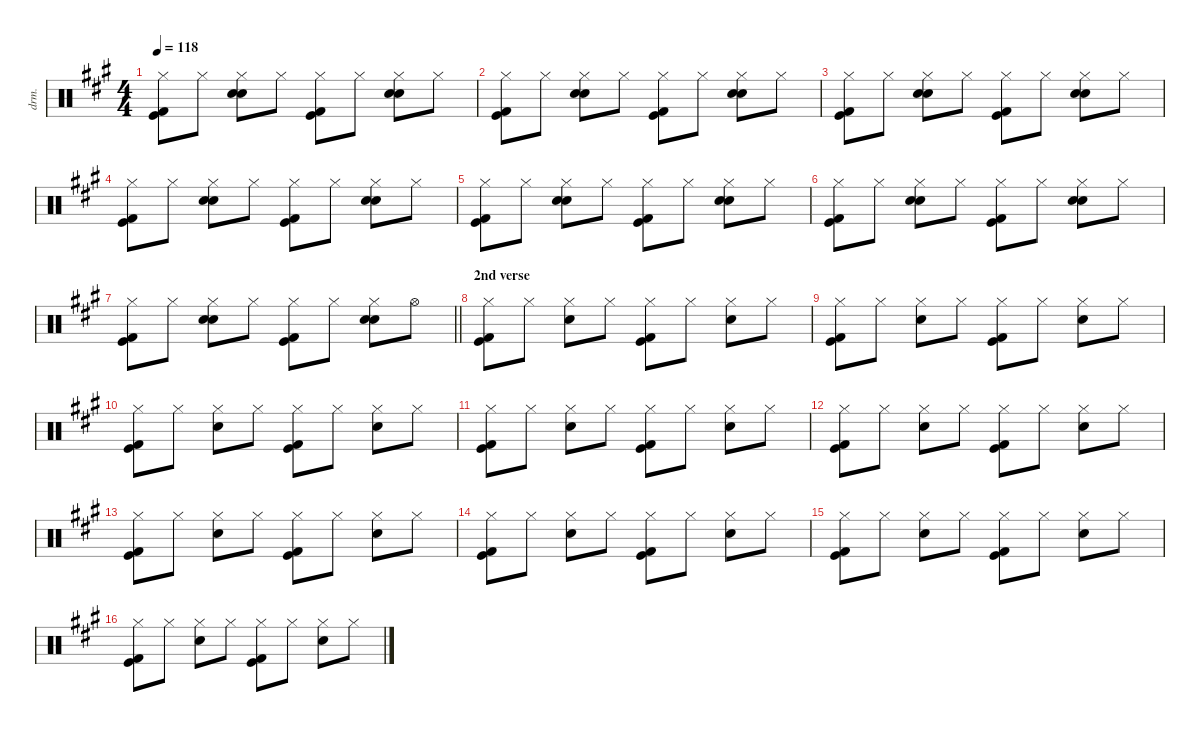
\defaultSystemsLayout 4
\hideDynamics
\bracketExtendMode nobrackets
\otherSystemsTrackNameOrientation horizontal
\track ("drums" "drm.") {instrument percussion}
\staff {score}
\articulation defaults
\ts (4 4)
\tempo 118
\clef neutral
\ks f#minor
("Hi-Hat (closed)"{acc forcenatural} "Kick (hit)"{acc forcenatural} "Kick (hit) 2"{acc forcenatural}).8{dy f} "Hi-Hat (closed)"{acc forcenatural}.8{dy mf} ("Hi-Hat (closed)"{acc forcenatural} "Hand Clap (hit)"{acc forcenatural} "Snare (hit) 2"{acc forcenatural}).8{dy f} "Hi-Hat (closed)"{acc forcenatural}.8{dy mf} ("Hi-Hat (closed)"{acc forcenatural} "Kick (hit)"{acc forcenatural} "Kick (hit) 2"{acc forcenatural}).8{dy f} "Hi-Hat (closed)"{acc forcenatural}.8{dy mf} ("Hi-Hat (closed)"{acc forcenatural} "Hand Clap (hit)"{acc forcenatural} "Snare (hit) 2"{acc forcenatural}).8{dy f} "Hi-Hat (closed)"{acc forcenatural}.8{dy mf} |
("Hi-Hat (closed)"{acc forcenatural} "Kick (hit)"{acc forcenatural} "Kick (hit) 2"{acc forcenatural}).8{dy f} "Hi-Hat (closed)"{acc forcenatural}.8{dy mf} ("Hi-Hat (closed)"{acc forcenatural} "Hand Clap (hit)"{acc forcenatural} "Snare (hit) 2"{acc forcenatural}).8{dy f} "Hi-Hat (closed)"{acc forcenatural}.8{dy mf} ("Hi-Hat (closed)"{acc forcenatural} "Kick (hit)"{acc forcenatural} "Kick (hit) 2"{acc forcenatural}).8{dy f} "Hi-Hat (closed)"{acc forcenatural}.8{dy mf} ("Hi-Hat (closed)"{acc forcenatural} "Hand Clap (hit)"{acc forcenatural} "Snare (hit) 2"{acc forcenatural}).8{dy f} "Hi-Hat (closed)"{acc forcenatural}.8{dy mf} |
("Hi-Hat (closed)"{acc forcenatural} "Kick (hit)"{acc forcenatural} "Kick (hit) 2"{acc forcenatural}).8{dy f} "Hi-Hat (closed)"{acc forcenatural}.8{dy mf} ("Hi-Hat (closed)"{acc forcenatural} "Hand Clap (hit)"{acc forcenatural} "Snare (hit) 2"{acc forcenatural}).8{dy f} "Hi-Hat (closed)"{acc forcenatural}.8{dy mf} ("Hi-Hat (closed)"{acc forcenatural} "Kick (hit)"{acc forcenatural} "Kick (hit) 2"{acc forcenatural}).8{dy f} "Hi-Hat (closed)"{acc forcenatural}.8{dy mf} ("Hi-Hat (closed)"{acc forcenatural} "Hand Clap (hit)"{acc forcenatural} "Snare (hit) 2"{acc forcenatural}).8{dy f} "Hi-Hat (closed)"{acc forcenatural}.8{dy mf} |
("Hi-Hat (closed)"{acc forcenatural} "Kick (hit)"{acc forcenatural} "Kick (hit) 2"{acc forcenatural}).8{dy f} "Hi-Hat (closed)"{acc forcenatural}.8{dy mf} ("Hi-Hat (closed)"{acc forcenatural} "Hand Clap (hit)"{acc forcenatural} "Snare (hit) 2"{acc forcenatural}).8{dy f} "Hi-Hat (closed)"{acc forcenatural}.8{dy mf} ("Hi-Hat (closed)"{acc forcenatural} "Kick (hit)"{acc forcenatural} "Kick (hit) 2"{acc forcenatural}).8{dy f} "Hi-Hat (closed)"{acc forcenatural}.8{dy mf} ("Hi-Hat (closed)"{acc forcenatural} "Hand Clap (hit)"{acc forcenatural} "Snare (hit) 2"{acc forcenatural}).8{dy f} "Hi-Hat (closed)"{acc forcenatural}.8{dy mf} |
("Hi-Hat (closed)"{acc forcenatural} "Kick (hit)"{acc forcenatural} "Kick (hit) 2"{acc forcenatural}).8{dy f} "Hi-Hat (closed)"{acc forcenatural}.8{dy mf} ("Hi-Hat (closed)"{acc forcenatural} "Hand Clap (hit)"{acc forcenatural} "Snare (hit) 2"{acc forcenatural}).8{dy f} "Hi-Hat (closed)"{acc forcenatural}.8{dy mf} ("Hi-Hat (closed)"{acc forcenatural} "Kick (hit)"{acc forcenatural} "Kick (hit) 2"{acc forcenatural}).8{dy f} "Hi-Hat (closed)"{acc forcenatural}.8{dy mf} ("Hi-Hat (closed)"{acc forcenatural} "Hand Clap (hit)"{acc forcenatural} "Snare (hit) 2"{acc forcenatural}).8{dy f} "Hi-Hat (closed)"{acc forcenatural}.8{dy mf} |
("Hi-Hat (closed)"{acc forcenatural} "Kick (hit)"{acc forcenatural} "Kick (hit) 2"{acc forcenatural}).8{dy f} "Hi-Hat (closed)"{acc forcenatural}.8{dy mf} ("Hi-Hat (closed)"{acc forcenatural} "Hand Clap (hit)"{acc forcenatural} "Snare (hit) 2"{acc forcenatural}).8{dy f} "Hi-Hat (closed)"{acc forcenatural}.8{dy mf} ("Hi-Hat (closed)"{acc forcenatural} "Kick (hit)"{acc forcenatural} "Kick (hit) 2"{acc forcenatural}).8{dy f} "Hi-Hat (closed)"{acc forcenatural}.8{dy mf} ("Hi-Hat (closed)"{acc forcenatural} "Hand Clap (hit)"{acc forcenatural} "Snare (hit) 2"{acc forcenatural}).8{dy f} "Hi-Hat (closed)"{acc forcenatural}.8{dy mf} |
\barLineRight lightlight
("Hi-Hat (closed)"{acc forcenatural} "Kick (hit)"{acc forcenatural} "Kick (hit) 2"{acc forcenatural}).8{dy f} "Hi-Hat (closed)"{acc forcenatural}.8{dy mf} ("Hi-Hat (closed)"{acc forcenatural} "Hand Clap (hit)"{acc forcenatural} "Snare (hit) 2"{acc forcenatural}).8{dy f} "Hi-Hat (closed)"{acc forcenatural}.8{dy mf} ("Hi-Hat (closed)"{acc forcenatural} "Kick (hit)"{acc forcenatural} "Kick (hit) 2"{acc forcenatural}).8{dy f} "Hi-Hat (closed)"{acc forcenatural}.8{dy mf} ("Hi-Hat (closed)"{acc forcenatural} "Hand Clap (hit)"{acc forcenatural} "Snare (hit) 2"{acc forcenatural}).8{dy f} "Hi-Hat (open)"{acc forcenatural}.8 |
\section ("" "2nd verse")
("Hi-Hat (closed)"{acc forcenatural} "Kick (hit)"{acc forcenatural} "Kick (hit) 2"{acc forcenatural}).8 "Hi-Hat (closed)"{acc forcenatural}.8{dy mf} ("Hi-Hat (closed)"{acc forcenatural} "Snare (hit) 2"{acc forcenatural}).8{dy f} "Hi-Hat (closed)"{acc forcenatural}.8{dy mf} ("Hi-Hat (closed)"{acc forcenatural} "Kick (hit)"{acc forcenatural} "Kick (hit) 2"{acc forcenatural}).8{dy f} "Hi-Hat (closed)"{acc forcenatural}.8{dy mf} ("Hi-Hat (closed)"{acc forcenatural} "Snare (hit) 2"{acc forcenatural}).8{dy f} "Hi-Hat (closed)"{acc forcenatural}.8{dy mf} |
("Hi-Hat (closed)"{acc forcenatural} "Kick (hit)"{acc forcenatural} "Kick (hit) 2"{acc forcenatural}).8{dy f} "Hi-Hat (closed)"{acc forcenatural}.8{dy mf} ("Hi-Hat (closed)"{acc forcenatural} "Snare (hit) 2"{acc forcenatural}).8{dy f} "Hi-Hat (closed)"{acc forcenatural}.8{dy mf} ("Hi-Hat (closed)"{acc forcenatural} "Kick (hit)"{acc forcenatural} "Kick (hit) 2"{acc forcenatural}).8{dy f} "Hi-Hat (closed)"{acc forcenatural}.8{dy mf} ("Hi-Hat (closed)"{acc forcenatural} "Snare (hit) 2"{acc forcenatural}).8{dy f} "Hi-Hat (closed)"{acc forcenatural}.8{dy mf} |
("Hi-Hat (closed)"{acc forcenatural} "Kick (hit)"{acc forcenatural} "Kick (hit) 2"{acc forcenatural}).8{dy f} "Hi-Hat (closed)"{acc forcenatural}.8{dy mf} ("Hi-Hat (closed)"{acc forcenatural} "Snare (hit) 2"{acc forcenatural}).8{dy f} "Hi-Hat (closed)"{acc forcenatural}.8{dy mf} ("Hi-Hat (closed)"{acc forcenatural} "Kick (hit)"{acc forcenatural} "Kick (hit) 2"{acc forcenatural}).8{dy f} "Hi-Hat (closed)"{acc forcenatural}.8{dy mf} ("Hi-Hat (closed)"{acc forcenatural} "Snare (hit) 2"{acc forcenatural}).8{dy f} "Hi-Hat (closed)"{acc forcenatural}.8{dy mf} |
("Hi-Hat (closed)"{acc forcenatural} "Kick (hit)"{acc forcenatural} "Kick (hit) 2"{acc forcenatural}).8{dy f} "Hi-Hat (closed)"{acc forcenatural}.8{dy mf} ("Hi-Hat (closed)"{acc forcenatural} "Snare (hit) 2"{acc forcenatural}).8{dy f} "Hi-Hat (closed)"{acc forcenatural}.8{dy mf} ("Hi-Hat (closed)"{acc forcenatural} "Kick (hit)"{acc forcenatural} "Kick (hit) 2"{acc forcenatural}).8{dy f} "Hi-Hat (closed)"{acc forcenatural}.8{dy mf} ("Hi-Hat (closed)"{acc forcenatural} "Snare (hit) 2"{acc forcenatural}).8{dy f} "Hi-Hat (closed)"{acc forcenatural}.8{dy mf} |
("Hi-Hat (closed)"{acc forcenatural} "Kick (hit)"{acc forcenatural} "Kick (hit) 2"{acc forcenatural}).8{dy f} "Hi-Hat (closed)"{acc forcenatural}.8{dy mf} ("Hi-Hat (closed)"{acc forcenatural} "Snare (hit) 2"{acc forcenatural}).8{dy f} "Hi-Hat (closed)"{acc forcenatural}.8{dy mf} ("Hi-Hat (closed)"{acc forcenatural} "Kick (hit)"{acc forcenatural} "Kick (hit) 2"{acc forcenatural}).8{dy f} "Hi-Hat (closed)"{acc forcenatural}.8{dy mf} ("Hi-Hat (closed)"{acc forcenatural} "Snare (hit) 2"{acc forcenatural}).8{dy f} "Hi-Hat (closed)"{acc forcenatural}.8{dy mf} |
("Hi-Hat (closed)"{acc forcenatural} "Kick (hit)"{acc forcenatural} "Kick (hit) 2"{acc forcenatural}).8{dy f} "Hi-Hat (closed)"{acc forcenatural}.8{dy mf} ("Hi-Hat (closed)"{acc forcenatural} "Snare (hit) 2"{acc forcenatural}).8{dy f} "Hi-Hat (closed)"{acc forcenatural}.8{dy mf} ("Hi-Hat (closed)"{acc forcenatural} "Kick (hit)"{acc forcenatural} "Kick (hit) 2"{acc forcenatural}).8{dy f} "Hi-Hat (closed)"{acc forcenatural}.8{dy mf} ("Hi-Hat (closed)"{acc forcenatural} "Snare (hit) 2"{acc forcenatural}).8{dy f} "Hi-Hat (closed)"{acc forcenatural}.8{dy mf} |
("Hi-Hat (closed)"{acc forcenatural} "Kick (hit)"{acc forcenatural} "Kick (hit) 2"{acc forcenatural}).8{dy f} "Hi-Hat (closed)"{acc forcenatural}.8{dy mf} ("Hi-Hat (closed)"{acc forcenatural} "Snare (hit) 2"{acc forcenatural}).8{dy f} "Hi-Hat (closed)"{acc forcenatural}.8{dy mf} ("Hi-Hat (closed)"{acc forcenatural} "Kick (hit)"{acc forcenatural} "Kick (hit) 2"{acc forcenatural}).8{dy f} "Hi-Hat (closed)"{acc forcenatural}.8{dy mf} ("Hi-Hat (closed)"{acc forcenatural} "Snare (hit) 2"{acc forcenatural}).8{dy f} "Hi-Hat (closed)"{acc forcenatural}.8{dy mf} |
("Hi-Hat (closed)"{acc forcenatural} "Kick (hit)"{acc forcenatural} "Kick (hit) 2"{acc forcenatural}).8{dy f} "Hi-Hat (closed)"{acc forcenatural}.8{dy mf} ("Hi-Hat (closed)"{acc forcenatural} "Snare (hit) 2"{acc forcenatural}).8{dy f} "Hi-Hat (closed)"{acc forcenatural}.8{dy mf} ("Hi-Hat (closed)"{acc forcenatural} "Kick (hit)"{acc forcenatural} "Kick (hit) 2"{acc forcenatural}).8{dy f} "Hi-Hat (closed)"{acc forcenatural}.8{dy mf} ("Hi-Hat (closed)"{acc forcenatural} "Snare (hit) 2"{acc forcenatural}).8{dy f} "Hi-Hat (closed)"{acc forcenatural}.8{dy mf} |
("Hi-Hat (closed)"{acc forcenatural} "Kick (hit)"{acc forcenatural} "Kick (hit) 2"{acc forcenatural}).8{dy f} "Hi-Hat (closed)"{acc forcenatural}.8{dy mf} ("Hi-Hat (closed)"{acc forcenatural} "Snare (hit) 2"{acc forcenatural}).8{dy f} "Hi-Hat (closed)"{acc forcenatural}.8{dy mf} ("Hi-Hat (closed)"{acc forcenatural} "Kick (hit)"{acc forcenatural} "Kick (hit) 2"{acc forcenatural}).8{dy f} "Hi-Hat (closed)"{acc forcenatural}.8{dy mf} ("Hi-Hat (closed)"{acc forcenatural} "Snare (hit) 2"{acc forcenatural}).8{dy f} "Hi-Hat (closed)"{acc forcenatural}.8{dy mf}
